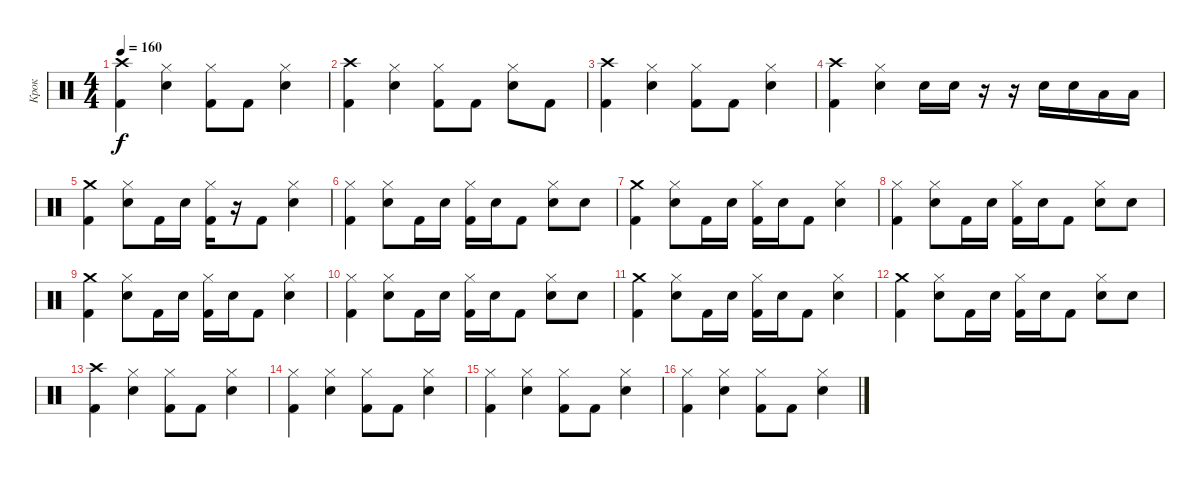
\track ("Крок" "Крок") {instrument percussion}
\staff {score}
\articulation defaults
\ts (4 4)
\tempo 160
\clef neutral
\ks c
("Crash high (hit)" "Kick (hit) 2").4{dy f} ("Hi-Hat (closed)" "Electric Snare (hit)").4 ("Hi-Hat (closed)" "Kick (hit) 2").8 "Kick (hit) 2".8 ("Hi-Hat (closed)" "Electric Snare (hit)").4 |
("Crash high (hit)" "Kick (hit) 2").4 ("Hi-Hat (closed)" "Electric Snare (hit)").4 ("Hi-Hat (closed)" "Kick (hit) 2").8 "Kick (hit) 2".8 ("Hi-Hat (closed)" "Electric Snare (hit)").8 "Kick (hit) 2".8 |
("Crash high (hit)" "Kick (hit) 2").4 ("Hi-Hat (closed)" "Electric Snare (hit)").4 ("Hi-Hat (closed)" "Kick (hit) 2").8 "Kick (hit) 2".8 ("Hi-Hat (closed)" "Electric Snare (hit)").4 |
("Crash high (hit)" "Kick (hit) 2").4 ("Hi-Hat (closed)" "Electric Snare (hit)").4 "Electric Snare (hit)".16 "Electric Snare (hit)".16 r.16 r.16 "Electric Snare (hit)".16 "Electric Snare (hit)".16 "Low Tom (hit)".16 "Low Tom (hit)".16 |
("Crash medium (hit)" "Kick (hit) 2").4 ("Hi-Hat (closed)" "Electric Snare (hit)").8 "Kick (hit) 2".16 "Electric Snare (hit)".16 ("Hi-Hat (closed)" "Kick (hit) 2").16 r.16 "Kick (hit) 2".8 ("Hi-Hat (closed)" "Electric Snare (hit)").4 |
("Hi-Hat (closed)" "Kick (hit) 2").4 ("Hi-Hat (closed)" "Electric Snare (hit)").8 "Kick (hit) 2".16 "Electric Snare (hit)".16 ("Hi-Hat (closed)" "Kick (hit) 2").16 "Electric Snare (hit)".16 "Kick (hit) 2".8 ("Hi-Hat (closed)" "Electric Snare (hit)").8 "Electric Snare (hit)".8 |
("Crash medium (hit)" "Kick (hit) 2").4 ("Hi-Hat (closed)" "Electric Snare (hit)").8 "Kick (hit) 2".16 "Electric Snare (hit)".16 ("Hi-Hat (closed)" "Kick (hit) 2").16 "Electric Snare (hit)".16 "Kick (hit) 2".8 ("Hi-Hat (closed)" "Electric Snare (hit)").4 |
("Hi-Hat (closed)" "Kick (hit) 2").4 ("Hi-Hat (closed)" "Electric Snare (hit)").8 "Kick (hit) 2".16 "Electric Snare (hit)".16 ("Hi-Hat (closed)" "Kick (hit) 2").16 "Electric Snare (hit)".16 "Kick (hit) 2".8 ("Hi-Hat (closed)" "Electric Snare (hit)").8 "Electric Snare (hit)".8 |
("Crash medium (hit)" "Kick (hit) 2").4 ("Hi-Hat (closed)" "Electric Snare (hit)").8 "Kick (hit) 2".16 "Electric Snare (hit)".16 ("Hi-Hat (closed)" "Kick (hit) 2").16 "Electric Snare (hit)".16 "Kick (hit) 2".8 ("Hi-Hat (closed)" "Electric Snare (hit)").4 |
("Hi-Hat (closed)" "Kick (hit) 2").4 ("Hi-Hat (closed)" "Electric Snare (hit)").8 "Kick (hit) 2".16 "Electric Snare (hit)".16 ("Hi-Hat (closed)" "Kick (hit) 2").16 "Electric Snare (hit)".16 "Kick (hit) 2".8 ("Hi-Hat (closed)" "Electric Snare (hit)").8 "Electric Snare (hit)".8 |
("Crash medium (hit)" "Kick (hit) 2").4 ("Hi-Hat (closed)" "Electric Snare (hit)").8 "Kick (hit) 2".16 "Electric Snare (hit)".16 ("Hi-Hat (closed)" "Kick (hit) 2").16 "Electric Snare (hit)".16 "Kick (hit) 2".8 ("Hi-Hat (closed)" "Electric Snare (hit)").4 |
("Crash medium (hit)" "Kick (hit) 2").4 ("Hi-Hat (closed)" "Electric Snare (hit)").8 "Kick (hit) 2".16 "Electric Snare (hit)".16 ("Hi-Hat (closed)" "Kick (hit) 2").16 "Electric Snare (hit)".16 "Kick (hit) 2".8 ("Hi-Hat (closed)" "Electric Snare (hit)").8 "Electric Snare (hit)".8 |
("Crash high (hit)" "Kick (hit) 2").4 ("Hi-Hat (closed)" "Electric Snare (hit)").4 ("Hi-Hat (closed)" "Kick (hit) 2").8 "Kick (hit) 2".8 ("Hi-Hat (closed)" "Electric Snare (hit)").4 |
("Hi-Hat (closed)" "Kick (hit) 2").4 ("Hi-Hat (closed)" "Electric Snare (hit)").4 ("Hi-Hat (closed)" "Kick (hit) 2").8 "Kick (hit) 2".8 ("Hi-Hat (closed)" "Electric Snare (hit)").4 |
("Hi-Hat (closed)" "Kick (hit) 2").4 ("Hi-Hat (closed)" "Electric Snare (hit)").4 ("Hi-Hat (closed)" "Kick (hit) 2").8 "Kick (hit) 2".8 ("Hi-Hat (closed)" "Electric Snare (hit)").4 |
("Hi-Hat (closed)" "Kick (hit) 2").4 ("Hi-Hat (closed)" "Electric Snare (hit)").4 ("Hi-Hat (closed)" "Kick (hit) 2").8 "Kick (hit) 2".8 ("Hi-Hat (closed)" "Electric Snare (hit)").4
